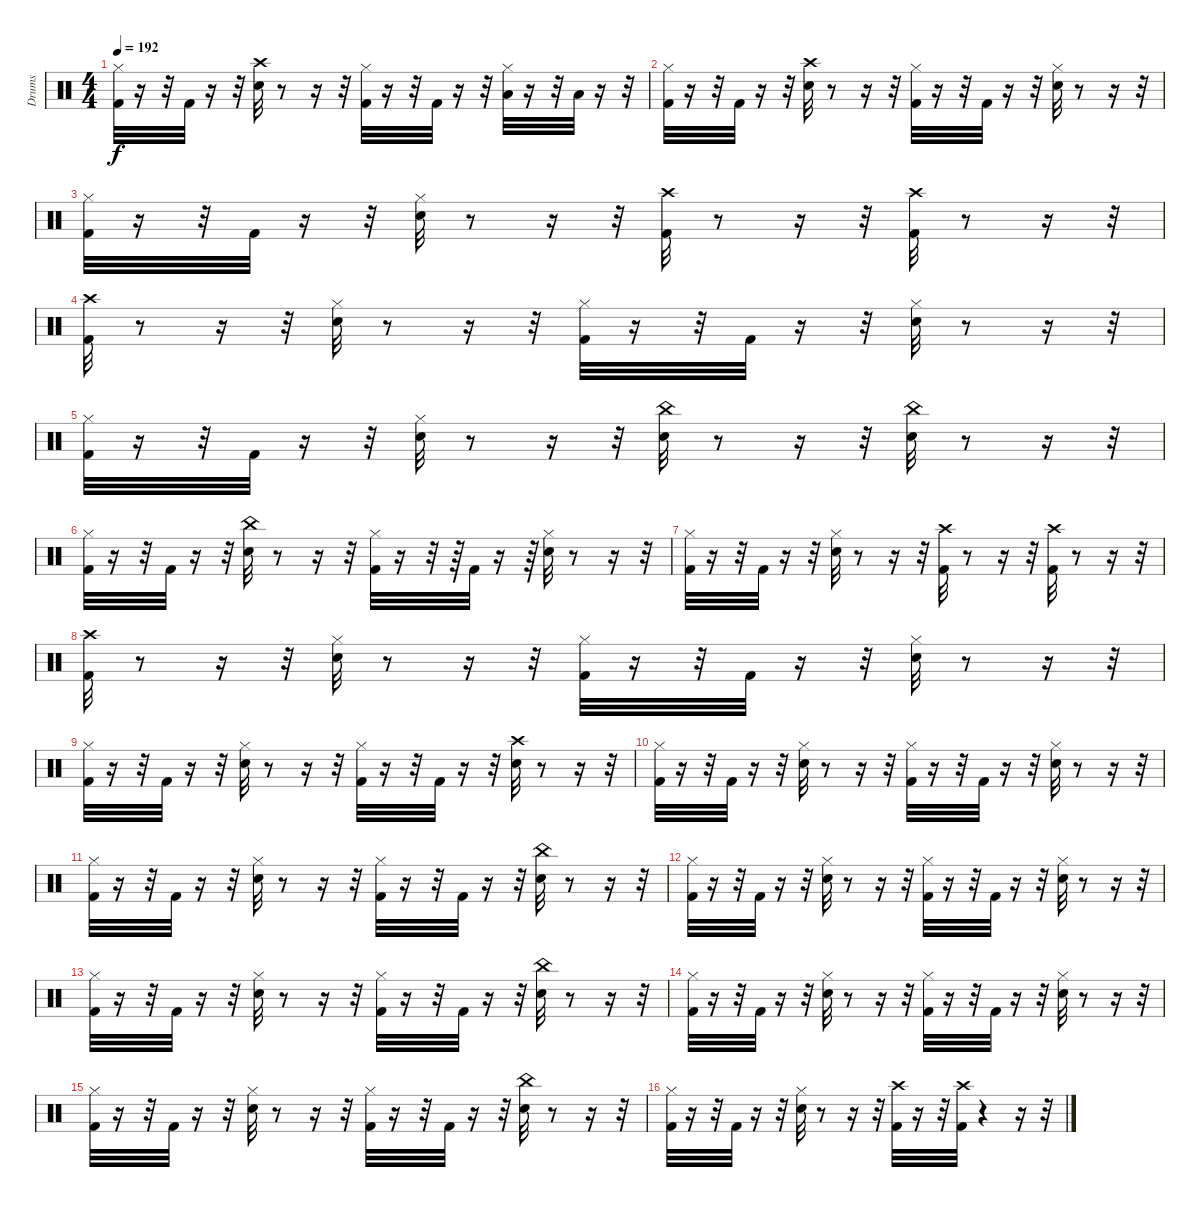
\track ("Drums" "Drums") {instrument percussion}
\staff {score}
\articulation defaults
\ts (4 4)
\tempo 192
\clef neutral
\ks c
("Kick (hit) 2" "Hi-Hat (closed)").32{dy f} r.16 r.32 "Kick (hit) 2".32 r.16 r.32 ("Crash high (hit)" "Snare (hit) 2").32 r.8 r.16 r.32 ("Hi-Hat (closed)" "Kick (hit) 2").32 r.16 r.32 "Kick (hit) 2".32 r.16 r.32 ("Low Tom (hit)" "Hi-Hat (closed)").32 r.16 r.32 "Low Tom (hit)".32 r.16 r.32 |
("Kick (hit) 2" "Hi-Hat (closed)").32 r.16 r.32 "Kick (hit) 2".32 r.16 r.32 ("Snare (hit) 2" "Crash high (hit)").32 r.8 r.16 r.32 ("Kick (hit) 2" "Hi-Hat (closed)").32 r.16 r.32 "Kick (hit) 2".32 r.16 r.32 ("Snare (hit) 2" "Hi-Hat (closed)").32 r.8 r.16 r.32 |
("Kick (hit) 2" "Hi-Hat (closed)").32 r.16 r.32 "Kick (hit) 2".32 r.16 r.32 ("Snare (hit) 2" "Hi-Hat (closed)").32 r.8 r.16 r.32 ("Crash high (hit)" "Kick (hit) 2").32 r.8 r.16 r.32 ("Crash high (hit)" "Kick (hit) 2").32 r.8 r.16 r.32 |
("Kick (hit) 2" "Crash high (hit)").32 r.8 r.16 r.32 ("Hi-Hat (closed)" "Snare (hit) 2").32 r.8 r.16 r.32 ("Hi-Hat (closed)" "Kick (hit) 2").32 r.16 r.32 "Kick (hit) 2".32 r.16 r.32 ("Hi-Hat (closed)" "Snare (hit) 2").32 r.8 r.16 r.32 |
("Hi-Hat (closed)" "Kick (hit) 2").32 r.16 r.32 "Kick (hit) 2".32 r.16 r.32 ("Snare (hit) 2" "Hi-Hat (closed)").32 r.8 r.16 r.32 ("China (hit)" "Snare (hit) 2").32 r.8 r.16 r.32 ("China (hit)" "Snare (hit) 2").32 r.8 r.16 r.32 |
("Hi-Hat (closed)" "Kick (hit) 2").32 r.16 r.32 "Kick (hit) 2".32 r.16 r.32 ("China (hit)" "Snare (hit) 2").32 r.8 r.16 r.32 ("Hi-Hat (closed)" "Kick (hit) 2").32 r.16 r.32 r.64 "Kick (hit) 2".32 r.16 r.64 ("Snare (hit) 2" "Hi-Hat (closed)").32 r.8 r.16 r.32 |
("Kick (hit) 2" "Hi-Hat (closed)").32 r.16 r.32 "Kick (hit) 2".32 r.16 r.32 ("Snare (hit) 2" "Hi-Hat (closed)").32 r.8 r.16 r.32 ("Crash high (hit)" "Kick (hit) 2").32 r.8 r.16 r.32 ("Crash high (hit)" "Kick (hit) 2").32 r.8 r.16 r.32 |
("Kick (hit) 2" "Crash high (hit)").32 r.8 r.16 r.32 ("Hi-Hat (closed)" "Snare (hit) 2").32 r.8 r.16 r.32 ("Hi-Hat (closed)" "Kick (hit) 2").32 r.16 r.32 "Kick (hit) 2".32 r.16 r.32 ("Hi-Hat (closed)" "Snare (hit) 2").32 r.8 r.16 r.32 |
("Hi-Hat (closed)" "Kick (hit) 2").32 r.16 r.32 "Kick (hit) 2".32 r.16 r.32 ("Snare (hit) 2" "Hi-Hat (closed)").32 r.8 r.16 r.32 ("Hi-Hat (closed)" "Kick (hit) 2").32 r.16 r.32 "Kick (hit) 2".32 r.16 r.32 ("Crash high (hit)" "Snare (hit) 2").32 r.8 r.16 r.32 |
("Kick (hit) 2" "Hi-Hat (closed)").32 r.16 r.32 "Kick (hit) 2".32 r.16 r.32 ("Snare (hit) 2" "Hi-Hat (closed)").32 r.8 r.16 r.32 ("Kick (hit) 2" "Hi-Hat (closed)").32 r.16 r.32 "Kick (hit) 2".32 r.16 r.32 ("Snare (hit) 2" "Hi-Hat (closed)").32 r.8 r.16 r.32 |
("Kick (hit) 2" "Hi-Hat (closed)").32 r.16 r.32 "Kick (hit) 2".32 r.16 r.32 ("Snare (hit) 2" "Hi-Hat (closed)").32 r.8 r.16 r.32 ("Kick (hit) 2" "Hi-Hat (closed)").32 r.16 r.32 "Kick (hit) 2".32 r.16 r.32 ("Snare (hit) 2" "China (hit)").32 r.8 r.16 r.32 |
("Kick (hit) 2" "Hi-Hat (closed)").32 r.16 r.32 "Kick (hit) 2".32 r.16 r.32 ("Snare (hit) 2" "Hi-Hat (closed)").32 r.8 r.16 r.32 ("Kick (hit) 2" "Hi-Hat (closed)").32 r.16 r.32 "Kick (hit) 2".32 r.16 r.32 ("Snare (hit) 2" "Hi-Hat (closed)").32 r.8 r.16 r.32 |
("Kick (hit) 2" "Hi-Hat (closed)").32 r.16 r.32 "Kick (hit) 2".32 r.16 r.32 ("Snare (hit) 2" "Hi-Hat (closed)").32 r.8 r.16 r.32 ("Kick (hit) 2" "Hi-Hat (closed)").32 r.16 r.32 "Kick (hit) 2".32 r.16 r.32 ("Snare (hit) 2" "China (hit)").32 r.8 r.16 r.32 |
("Kick (hit) 2" "Hi-Hat (closed)").32 r.16 r.32 "Kick (hit) 2".32 r.16 r.32 ("Snare (hit) 2" "Hi-Hat (closed)").32 r.8 r.16 r.32 ("Kick (hit) 2" "Hi-Hat (closed)").32 r.16 r.32 "Kick (hit) 2".32 r.16 r.32 ("Snare (hit) 2" "Hi-Hat (closed)").32 r.8 r.16 r.32 |
("Kick (hit) 2" "Hi-Hat (closed)").32 r.16 r.32 "Kick (hit) 2".32 r.16 r.32 ("Snare (hit) 2" "Hi-Hat (closed)").32 r.8 r.16 r.32 ("Kick (hit) 2" "Hi-Hat (closed)").32 r.16 r.32 "Kick (hit) 2".32 r.16 r.32 ("Snare (hit) 2" "China (hit)").32 r.8 r.16 r.32 |
("Hi-Hat (closed)" "Kick (hit) 2").32 r.16 r.32 "Kick (hit) 2".32 r.16 r.32 ("Snare (hit) 2" "Hi-Hat (closed)").32 r.8 r.16 r.32 ("Crash high (hit)" "Kick (hit) 2").32 r.16 r.32 ("Crash high (hit)" "Kick (hit) 2").32 r.4 r.16 r.32
